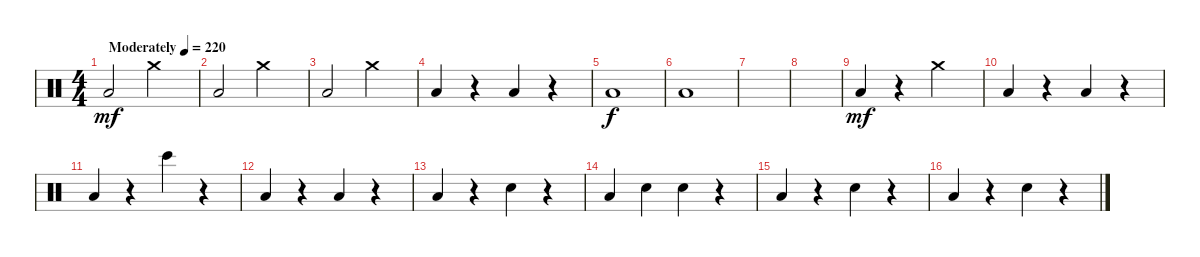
\track "" {instrument percussion}
\staff {score}
\articulation defaults
\ts (4 4)
\tempo (220 "Moderately")
\clef neutral
\ks c "Low Tom (hit)".2{dy mf} "Crash medium (hit)".2
|
"Low Tom (hit)".2 "Crash medium (hit)".2 |
"Low Tom (hit)".2 "Crash medium (hit)".2 |
"Low Tom (hit)".4 r.4 "Low Tom (hit)".4 r.4 |
"Low Tom (hit)".1{dy f} |
"Low Tom (hit)".1 |
|
|
"Low Tom (hit)".4{dy mf} r.4 "Crash medium (hit)".2 |
"Low Tom (hit)".4 r.4 "Low Tom (hit)".4 r.4 |
"Low Tom (hit)".4 r.4 "Bongo High (hit)".4 r.4 |
"Low Tom (hit)".4 r.4 "Low Tom (hit)".4 r.4 |
"Low Tom (hit)".4 r.4 "Snare (hit) 2".4 r.4 |
"Low Tom (hit)".4 "Snare (hit) 2".4 "Snare (hit) 2".4 r.4 |
"Low Tom (hit)".4 r.4 "Snare (hit) 2".4 r.4 |
"Low Tom (hit)".4 r.4 "Snare (hit) 2".4 r.4
